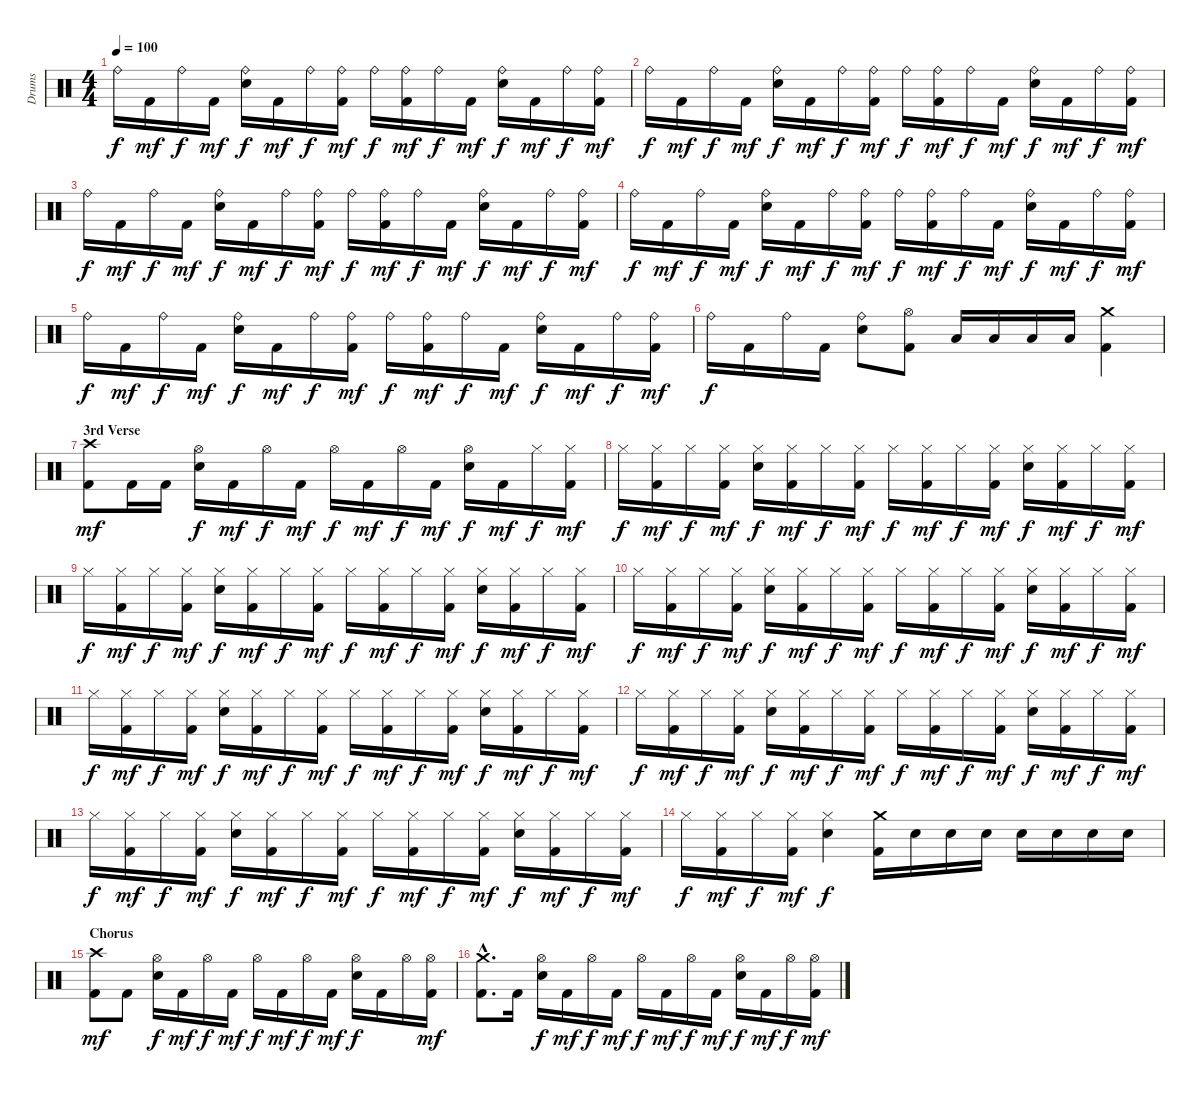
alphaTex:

\track ("Drums" "Drums") {instrument percussion}
\staff {score}
\articulation defaults
\ts (4 4)
\tempo 100
\clef neutral
\ks c "Ride (bell)".16{dy f} "Kick (hit) 2".16{dy mf} "Ride (bell)".16{dy f} "Kick (hit) 2".16{dy mf}
("Snare (hit) 2" "Ride (bell)").16{dy f} "Kick (hit) 2".16{dy mf} "Ride (bell)".16{dy f} ("Kick (hit) 2" "Ride (bell)").16{dy mf} "Ride (bell)".16{dy f} ("Kick (hit) 2" "Ride (bell)").16{dy mf} "Ride (bell)".16{dy f} "Kick (hit) 2".16{dy mf} ("Snare (hit) 2" "Ride (bell)").16{dy f} "Kick (hit) 2".16{dy mf} "Ride (bell)".16{dy f} ("Kick (hit) 2" "Ride (bell)").16{dy mf} |
"Ride (bell)".16{dy f} "Kick (hit) 2".16{dy mf} "Ride (bell)".16{dy f} "Kick (hit) 2".16{dy mf} ("Snare (hit) 2" "Ride (bell)").16{dy f} "Kick (hit) 2".16{dy mf} "Ride (bell)".16{dy f} ("Kick (hit) 2" "Ride (bell)").16{dy mf} "Ride (bell)".16{dy f} ("Kick (hit) 2" "Ride (bell)").16{dy mf} "Ride (bell)".16{dy f} "Kick (hit) 2".16{dy mf} ("Snare (hit) 2" "Ride (bell)").16{dy f} "Kick (hit) 2".16{dy mf} "Ride (bell)".16{dy f} ("Kick (hit) 2" "Ride (bell)").16{dy mf} |
"Ride (bell)".16{dy f} "Kick (hit) 2".16{dy mf} "Ride (bell)".16{dy f} "Kick (hit) 2".16{dy mf} ("Snare (hit) 2" "Ride (bell)").16{dy f} "Kick (hit) 2".16{dy mf} "Ride (bell)".16{dy f} ("Kick (hit) 2" "Ride (bell)").16{dy mf} "Ride (bell)".16{dy f} ("Kick (hit) 2" "Ride (bell)").16{dy mf} "Ride (bell)".16{dy f} "Kick (hit) 2".16{dy mf} ("Snare (hit) 2" "Ride (bell)").16{dy f} "Kick (hit) 2".16{dy mf} "Ride (bell)".16{dy f} ("Kick (hit) 2" "Ride (bell)").16{dy mf} |
"Ride (bell)".16{dy f} "Kick (hit) 2".16{dy mf} "Ride (bell)".16{dy f} "Kick (hit) 2".16{dy mf} ("Snare (hit) 2" "Ride (bell)").16{dy f} "Kick (hit) 2".16{dy mf} "Ride (bell)".16{dy f} ("Kick (hit) 2" "Ride (bell)").16{dy mf} "Ride (bell)".16{dy f} ("Kick (hit) 2" "Ride (bell)").16{dy mf} "Ride (bell)".16{dy f} "Kick (hit) 2".16{dy mf} ("Snare (hit) 2" "Ride (bell)").16{dy f} "Kick (hit) 2".16{dy mf} "Ride (bell)".16{dy f} ("Kick (hit) 2" "Ride (bell)").16{dy mf} |
"Ride (bell)".16{dy f} "Kick (hit) 2".16{dy mf} "Ride (bell)".16{dy f} "Kick (hit) 2".16{dy mf} ("Snare (hit) 2" "Ride (bell)").16{dy f} "Kick (hit) 2".16{dy mf} "Ride (bell)".16{dy f} ("Kick (hit) 2" "Ride (bell)").16{dy mf} "Ride (bell)".16{dy f} ("Kick (hit) 2" "Ride (bell)").16{dy mf} "Ride (bell)".16{dy f} "Kick (hit) 2".16{dy mf} ("Snare (hit) 2" "Ride (bell)").16{dy f} "Kick (hit) 2".16{dy mf} "Ride (bell)".16{dy f} ("Kick (hit) 2" "Ride (bell)").16{dy mf} |
"Ride (bell)".16{dy f} "Kick (hit) 2".16 "Ride (bell)".16 "Kick (hit) 2".16 ("Snare (hit) 2" "Ride (bell)").8 ("Kick (hit) 2" "Hi-Hat (open)").8 "Low Tom (hit)".16 "Low Tom (hit)".16 "Low Tom (hit)".16 "Low Tom (hit)".16 ("Kick (hit) 2" "Crash medium (hit)").4 |
\section ("" "3rd Verse")
("Kick (hit) 2" "Crash high (hit)").8{dy mf} "Kick (hit) 2".16 "Kick (hit) 2".16 ("Snare (hit) 2" "Hi-Hat (open)").16{dy f} "Kick (hit) 2".16{dy mf} "Hi-Hat (open)".16{dy f} "Kick (hit) 2".16{dy mf} "Hi-Hat (open)".16{dy f} "Kick (hit) 2".16{dy mf} "Hi-Hat (open)".16{dy f} "Kick (hit) 2".16{dy mf} ("Snare (hit) 2" "Hi-Hat (open)").16{dy f} "Kick (hit) 2".16{dy mf} "Hi-Hat (closed)".16{dy f} ("Kick (hit) 2" "Hi-Hat (closed)").16{dy mf} |
"Hi-Hat (closed)".16{dy f} ("Kick (hit) 2" "Hi-Hat (closed)").16{dy mf} "Hi-Hat (closed)".16{dy f} ("Kick (hit) 2" "Hi-Hat (closed)").16{dy mf} ("Snare (hit) 2" "Hi-Hat (closed)").16{dy f} ("Kick (hit) 2" "Hi-Hat (closed)").16{dy mf} "Hi-Hat (closed)".16{dy f} ("Kick (hit) 2" "Hi-Hat (closed)").16{dy mf} "Hi-Hat (closed)".16{dy f} ("Kick (hit) 2" "Hi-Hat (closed)").16{dy mf} "Hi-Hat (closed)".16{dy f} ("Kick (hit) 2" "Hi-Hat (closed)").16{dy mf} ("Snare (hit) 2" "Hi-Hat (closed)").16{dy f} ("Kick (hit) 2" "Hi-Hat (closed)").16{dy mf} "Hi-Hat (closed)".16{dy f} ("Kick (hit) 2" "Hi-Hat (closed)").16{dy mf} |
"Hi-Hat (closed)".16{dy f} ("Kick (hit) 2" "Hi-Hat (closed)").16{dy mf} "Hi-Hat (closed)".16{dy f} ("Kick (hit) 2" "Hi-Hat (closed)").16{dy mf} ("Snare (hit) 2" "Hi-Hat (closed)").16{dy f} ("Kick (hit) 2" "Hi-Hat (closed)").16{dy mf} "Hi-Hat (closed)".16{dy f} ("Kick (hit) 2" "Hi-Hat (closed)").16{dy mf} "Hi-Hat (closed)".16{dy f} ("Kick (hit) 2" "Hi-Hat (closed)").16{dy mf} "Hi-Hat (closed)".16{dy f} ("Kick (hit) 2" "Hi-Hat (closed)").16{dy mf} ("Snare (hit) 2" "Hi-Hat (closed)").16{dy f} ("Kick (hit) 2" "Hi-Hat (closed)").16{dy mf} "Hi-Hat (closed)".16{dy f} ("Kick (hit) 2" "Hi-Hat (closed)").16{dy mf} |
"Hi-Hat (closed)".16{dy f} ("Kick (hit) 2" "Hi-Hat (closed)").16{dy mf} "Hi-Hat (closed)".16{dy f} ("Kick (hit) 2" "Hi-Hat (closed)").16{dy mf} ("Snare (hit) 2" "Hi-Hat (closed)").16{dy f} ("Kick (hit) 2" "Hi-Hat (closed)").16{dy mf} "Hi-Hat (closed)".16{dy f} ("Kick (hit) 2" "Hi-Hat (closed)").16{dy mf} "Hi-Hat (closed)".16{dy f} ("Kick (hit) 2" "Hi-Hat (closed)").16{dy mf} "Hi-Hat (closed)".16{dy f} ("Kick (hit) 2" "Hi-Hat (closed)").16{dy mf} ("Snare (hit) 2" "Hi-Hat (closed)").16{dy f} ("Kick (hit) 2" "Hi-Hat (closed)").16{dy mf} "Hi-Hat (closed)".16{dy f} ("Kick (hit) 2" "Hi-Hat (closed)").16{dy mf} |
"Hi-Hat (closed)".16{dy f} ("Kick (hit) 2" "Hi-Hat (closed)").16{dy mf} "Hi-Hat (closed)".16{dy f} ("Kick (hit) 2" "Hi-Hat (closed)").16{dy mf} ("Snare (hit) 2" "Hi-Hat (closed)").16{dy f} ("Kick (hit) 2" "Hi-Hat (closed)").16{dy mf} "Hi-Hat (closed)".16{dy f} ("Kick (hit) 2" "Hi-Hat (closed)").16{dy mf} "Hi-Hat (closed)".16{dy f} ("Kick (hit) 2" "Hi-Hat (closed)").16{dy mf} "Hi-Hat (closed)".16{dy f} ("Kick (hit) 2" "Hi-Hat (closed)").16{dy mf} ("Snare (hit) 2" "Hi-Hat (closed)").16{dy f} ("Kick (hit) 2" "Hi-Hat (closed)").16{dy mf} "Hi-Hat (closed)".16{dy f} ("Kick (hit) 2" "Hi-Hat (closed)").16{dy mf} |
"Hi-Hat (closed)".16{dy f} ("Kick (hit) 2" "Hi-Hat (closed)").16{dy mf} "Hi-Hat (closed)".16{dy f} ("Kick (hit) 2" "Hi-Hat (closed)").16{dy mf} ("Snare (hit) 2" "Hi-Hat (closed)").16{dy f} ("Kick (hit) 2" "Hi-Hat (closed)").16{dy mf} "Hi-Hat (closed)".16{dy f} ("Kick (hit) 2" "Hi-Hat (closed)").16{dy mf} "Hi-Hat (closed)".16{dy f} ("Kick (hit) 2" "Hi-Hat (closed)").16{dy mf} "Hi-Hat (closed)".16{dy f} ("Kick (hit) 2" "Hi-Hat (closed)").16{dy mf} ("Snare (hit) 2" "Hi-Hat (closed)").16{dy f} ("Kick (hit) 2" "Hi-Hat (closed)").16{dy mf} "Hi-Hat (closed)".16{dy f} ("Kick (hit) 2" "Hi-Hat (closed)").16{dy mf} |
"Hi-Hat (closed)".16{dy f} ("Kick (hit) 2" "Hi-Hat (closed)").16{dy mf} "Hi-Hat (closed)".16{dy f} ("Kick (hit) 2" "Hi-Hat (closed)").16{dy mf} ("Snare (hit) 2" "Hi-Hat (closed)").16{dy f} ("Kick (hit) 2" "Hi-Hat (closed)").16{dy mf} "Hi-Hat (closed)".16{dy f} ("Kick (hit) 2" "Hi-Hat (closed)").16{dy mf} "Hi-Hat (closed)".16{dy f} ("Kick (hit) 2" "Hi-Hat (closed)").16{dy mf} "Hi-Hat (closed)".16{dy f} ("Kick (hit) 2" "Hi-Hat (closed)").16{dy mf} ("Snare (hit) 2" "Hi-Hat (closed)").16{dy f} ("Kick (hit) 2" "Hi-Hat (closed)").16{dy mf} "Hi-Hat (closed)".16{dy f} ("Kick (hit) 2" "Hi-Hat (closed)").16{dy mf} |
"Hi-Hat (closed)".16{dy f} ("Kick (hit) 2" "Hi-Hat (closed)").16{dy mf} "Hi-Hat (closed)".16{dy f} ("Kick (hit) 2" "Hi-Hat (closed)").16{dy mf} ("Snare (hit) 2" "Hi-Hat (closed)").4{dy f} ("Kick (hit) 2" "Crash medium (hit)").16 "Snare (hit) 2".16 "Snare (hit) 2".16 "Snare (hit) 2".16 "Snare (hit) 2".16 "Snare (hit) 2".16 "Snare (hit) 2".16 "Snare (hit) 2".16 |
\section ("" "Chorus")
("Kick (hit) 2" "Crash high (hit)").8{dy mf} "Kick (hit) 2".8 ("Snare (hit) 2" "Hi-Hat (open)").16{dy f} "Kick (hit) 2".16{dy mf} "Hi-Hat (open)".16{dy f} "Kick (hit) 2".16{dy mf} "Hi-Hat (open)".16{dy f} "Kick (hit) 2".16{dy mf} "Hi-Hat (open)".16{dy f} "Kick (hit) 2".16{dy mf} ("Snare (hit) 2" "Hi-Hat (open)").16{dy f} "Kick (hit) 2".16 "Hi-Hat (open)".16 ("Kick (hit) 2" "Hi-Hat (open)").16{dy mf} |
("Kick (hit) 2"{hac} "Crash medium (hit)"{hac}).8{d} "Kick (hit) 2".16 ("Snare (hit) 2" "Hi-Hat (open)").16{dy f} "Kick (hit) 2".16{dy mf} "Hi-Hat (open)".16{dy f} "Kick (hit) 2".16{dy mf} "Hi-Hat (open)".16{dy f} "Kick (hit) 2".16{dy mf} "Hi-Hat (open)".16{dy f} "Kick (hit) 2".16{dy mf} ("Snare (hit) 2" "Hi-Hat (open)").16{dy f} "Kick (hit) 2".16{dy mf} "Hi-Hat (open)".16{dy f} ("Kick (hit) 2" "Hi-Hat (open)").16{dy mf}
